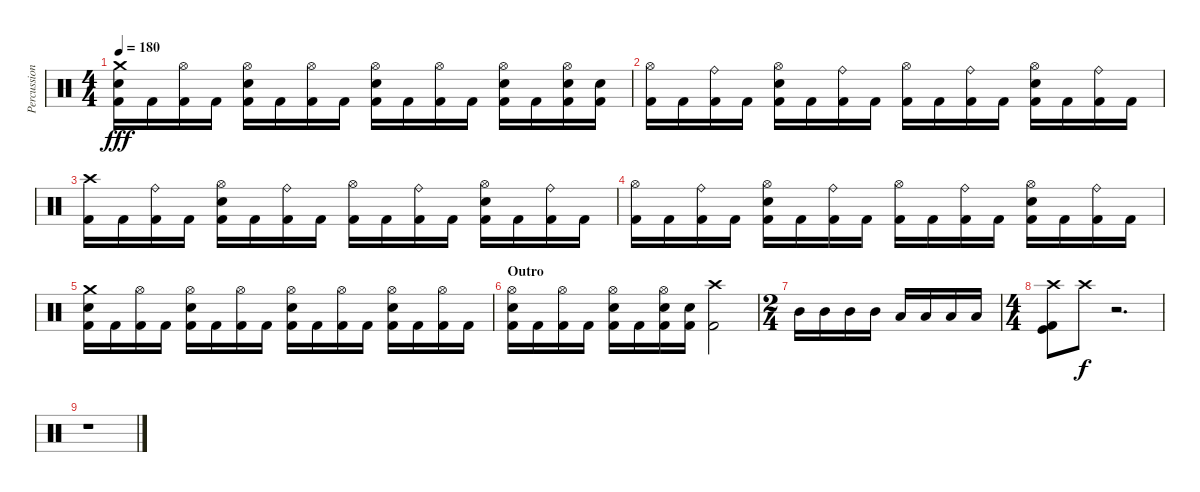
\track ("Percussion" "Percussion") {instrument percussion}
\staff {score}
\articulation defaults
\ts (4 4)
\tempo 180
\clef neutral
\ks c
("Crash medium (hit)" "Snare (hit) 2" "Kick (hit) 2").16{dy fff} "Kick (hit) 2".16 ("Hi-Hat (open)" "Kick (hit) 2").16 "Kick (hit) 2".16 ("Hi-Hat (open)" "Snare (hit) 2" "Kick (hit) 2").16 "Kick (hit) 2".16 ("Hi-Hat (open)" "Kick (hit) 2").16 "Kick (hit) 2".16 ("Hi-Hat (open)" "Snare (hit) 2" "Kick (hit) 2").16 "Kick (hit) 2".16 ("Hi-Hat (open)" "Kick (hit) 2").16 "Kick (hit) 2".16 ("Hi-Hat (open)" "Snare (hit) 2" "Kick (hit) 2").16 "Kick (hit) 2".16 ("Hi-Hat (open)" "Snare (hit) 2" "Kick (hit) 2").16 ("Snare (hit) 2" "Kick (hit) 2").16 |
("Hi-Hat (open)" "Kick (hit) 2").16 "Kick (hit) 2".16 ("Ride (bell)" "Kick (hit) 2").16 "Kick (hit) 2".16 ("Hi-Hat (open)" "Snare (hit) 2" "Kick (hit) 2").16 "Kick (hit) 2".16 ("Ride (bell)" "Kick (hit) 2").16 "Kick (hit) 2".16 ("Hi-Hat (open)" "Kick (hit) 2").16 "Kick (hit) 2".16 ("Ride (bell)" "Kick (hit) 2").16 "Kick (hit) 2".16 ("Hi-Hat (open)" "Snare (hit) 2" "Kick (hit) 2").16 "Kick (hit) 2".16 ("Ride (bell)" "Kick (hit) 2").16 "Kick (hit) 2".16 |
("Crash high (hit)" "Kick (hit) 2").16 "Kick (hit) 2".16 ("Ride (bell)" "Kick (hit) 2").16 "Kick (hit) 2".16 ("Hi-Hat (open)" "Snare (hit) 2" "Kick (hit) 2").16 "Kick (hit) 2".16 ("Ride (bell)" "Kick (hit) 2").16 "Kick (hit) 2".16 ("Hi-Hat (open)" "Kick (hit) 2").16 "Kick (hit) 2".16 ("Ride (bell)" "Kick (hit) 2").16 "Kick (hit) 2".16 ("Hi-Hat (open)" "Snare (hit) 2" "Kick (hit) 2").16 "Kick (hit) 2".16 ("Ride (bell)" "Kick (hit) 2").16 "Kick (hit) 2".16 |
("Hi-Hat (open)" "Kick (hit) 2").16 "Kick (hit) 2".16 ("Ride (bell)" "Kick (hit) 2").16 "Kick (hit) 2".16 ("Hi-Hat (open)" "Snare (hit) 2" "Kick (hit) 2").16 "Kick (hit) 2".16 ("Ride (bell)" "Kick (hit) 2").16 "Kick (hit) 2".16 ("Hi-Hat (open)" "Kick (hit) 2").16 "Kick (hit) 2".16 ("Ride (bell)" "Kick (hit) 2").16 "Kick (hit) 2".16 ("Hi-Hat (open)" "Snare (hit) 2" "Kick (hit) 2").16 "Kick (hit) 2".16 ("Ride (bell)" "Kick (hit) 2").16 "Kick (hit) 2".16 |
("Crash medium (hit)" "Snare (hit) 2" "Kick (hit) 2").16 "Kick (hit) 2".16 ("Hi-Hat (open)" "Kick (hit) 2").16 "Kick (hit) 2".16 ("Hi-Hat (open)" "Snare (hit) 2" "Kick (hit) 2").16 "Kick (hit) 2".16 ("Hi-Hat (open)" "Kick (hit) 2").16 "Kick (hit) 2".16 ("Hi-Hat (open)" "Snare (hit) 2" "Kick (hit) 2").16 "Kick (hit) 2".16 ("Hi-Hat (open)" "Kick (hit) 2").16 "Kick (hit) 2".16 ("Hi-Hat (open)" "Snare (hit) 2" "Kick (hit) 2").16 "Kick (hit) 2".16 ("Hi-Hat (open)" "Kick (hit) 2").16 "Kick (hit) 2".16 |
\section ("" "Outro")
("Hi-Hat (open)" "Snare (hit) 2" "Kick (hit) 2").16 "Kick (hit) 2".16 ("Hi-Hat (open)" "Kick (hit) 2").16 "Kick (hit) 2".16 ("Hi-Hat (open)" "Snare (hit) 2" "Kick (hit) 2").16 "Kick (hit) 2".16 ("Hi-Hat (open)" "Snare (hit) 2" "Kick (hit) 2").16 ("Snare (hit) 2" "Kick (hit) 2").16 ("Crash high (hit)" "Kick (hit) 2").2 |
\ts (2 4)
"Mid Tom (hit)".16 "Mid Tom (hit)".16 "Mid Tom (hit)".16 "Mid Tom (hit)".16 "Low Tom (hit)".16 "Low Tom (hit)".16 "Low Tom (hit)".16 "Low Tom (hit)".16 |
\ts (4 4)
("Crash high (hit)" "Kick (hit)" "Kick (hit) 2").8 "Crash high (hit)".8{dy f volume 0} r.2{d} |
r.1
